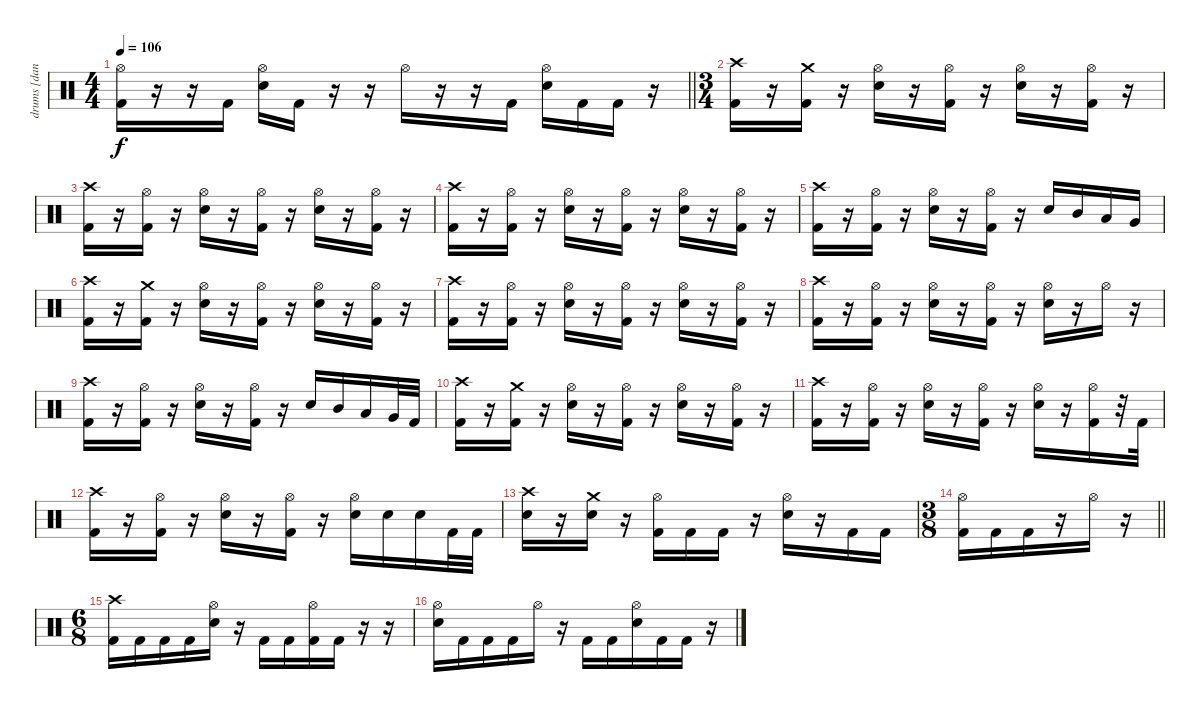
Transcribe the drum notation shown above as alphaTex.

\track ("drums [danny carey]" "drums [dan") {instrument percussion}
\staff {score}
\articulation defaults
\ts (4 4)
\tempo 106
\clef neutral
\barLineRight lightlight
\ks c
("Hi-Hat (open)" "Kick (hit) 2").16{dy f} r.16 r.16 "Kick (hit) 2".16 ("Hi-Hat (open)" "Electric Snare (hit)").16 "Kick (hit) 2".16 r.16 r.16 "Hi-Hat (open)".16 r.16 r.16 "Kick (hit) 2".16 ("Hi-Hat (open)" "Electric Snare (hit)").16 "Kick (hit) 2".16 "Kick (hit) 2".16 r.16 |
\ts (3 4)
("Crash high (hit)" "Kick (hit) 2").16 r.16 ("Crash medium (hit)" "Kick (hit) 2").16 r.16 ("Hi-Hat (open)" "Electric Snare (hit)").16 r.16 ("Hi-Hat (open)" "Kick (hit) 2").16 r.16 ("Hi-Hat (open)" "Electric Snare (hit)").16 r.16 ("Hi-Hat (open)" "Kick (hit) 2").16 r.16 |
("Crash high (hit)" "Kick (hit) 2").16 r.16 ("Hi-Hat (open)" "Kick (hit) 2").16 r.16 ("Hi-Hat (open)" "Electric Snare (hit)").16 r.16 ("Hi-Hat (open)" "Kick (hit) 2").16 r.16 ("Hi-Hat (open)" "Electric Snare (hit)").16 r.16 ("Hi-Hat (open)" "Kick (hit) 2").16 r.16 |
("Crash high (hit)" "Kick (hit) 2").16 r.16 ("Hi-Hat (open)" "Kick (hit) 2").16 r.16 ("Hi-Hat (open)" "Electric Snare (hit)").16 r.16 ("Hi-Hat (open)" "Kick (hit) 2").16 r.16 ("Hi-Hat (open)" "Electric Snare (hit)").16 r.16 ("Hi-Hat (open)" "Kick (hit) 2").16 r.16 |
("Crash high (hit)" "Kick (hit) 2").16 r.16 ("Hi-Hat (open)" "Kick (hit) 2").16 r.16 ("Hi-Hat (open)" "Electric Snare (hit)").16 r.16 ("Hi-Hat (open)" "Kick (hit) 2").16 r.16 "Electric Snare (hit)".16 "Mid Tom (hit)".16 "Low Tom (hit)".16 "Very Low Tom (hit)".16 |
("Crash high (hit)" "Kick (hit) 2").16 r.16 ("Crash medium (hit)" "Kick (hit) 2").16 r.16 ("Hi-Hat (open)" "Electric Snare (hit)").16 r.16 ("Hi-Hat (open)" "Kick (hit) 2").16 r.16 ("Hi-Hat (open)" "Electric Snare (hit)").16 r.16 ("Hi-Hat (open)" "Kick (hit) 2").16 r.16 |
("Crash high (hit)" "Kick (hit) 2").16 r.16 ("Hi-Hat (open)" "Kick (hit) 2").16 r.16 ("Hi-Hat (open)" "Electric Snare (hit)").16 r.16 ("Hi-Hat (open)" "Kick (hit) 2").16 r.16 ("Hi-Hat (open)" "Electric Snare (hit)").16 r.16 ("Hi-Hat (open)" "Kick (hit) 2").16 r.16 |
("Crash high (hit)" "Kick (hit) 2").16 r.16 ("Hi-Hat (open)" "Kick (hit) 2").16 r.16 ("Hi-Hat (open)" "Electric Snare (hit)").16 r.16 ("Hi-Hat (open)" "Kick (hit) 2").16 r.16 ("Hi-Hat (open)" "Electric Snare (hit)").16 r.16 "Hi-Hat (open)".16 r.16 |
("Crash high (hit)" "Kick (hit) 2").16 r.16 ("Hi-Hat (open)" "Kick (hit) 2").16 r.16 ("Hi-Hat (open)" "Electric Snare (hit)").16 r.16 ("Hi-Hat (open)" "Kick (hit) 2").16 r.16 "Electric Snare (hit)".16 "Mid Tom (hit)".16 "Low Tom (hit)".16 "Very Low Tom (hit)".32 "Kick (hit) 2".32 |
("Crash high (hit)" "Kick (hit) 2").16 r.16 ("Crash medium (hit)" "Kick (hit) 2").16 r.16 ("Hi-Hat (open)" "Electric Snare (hit)").16 r.16 ("Hi-Hat (open)" "Kick (hit) 2").16 r.16 ("Hi-Hat (open)" "Electric Snare (hit)").16 r.16 ("Hi-Hat (open)" "Kick (hit) 2").16 r.16 |
("Crash high (hit)" "Kick (hit) 2").16 r.16 ("Hi-Hat (open)" "Kick (hit) 2").16 r.16 ("Hi-Hat (open)" "Electric Snare (hit)").16 r.16 ("Hi-Hat (open)" "Kick (hit) 2").16 r.16 ("Hi-Hat (open)" "Electric Snare (hit)").16 r.16 ("Hi-Hat (open)" "Kick (hit) 2").16 r.32 "Kick (hit) 2".32 |
("Crash high (hit)" "Kick (hit) 2").16 r.16 ("Hi-Hat (open)" "Kick (hit) 2").16 r.16 ("Hi-Hat (open)" "Electric Snare (hit)").16 r.16 ("Hi-Hat (open)" "Kick (hit) 2").16 r.16 ("Hi-Hat (open)" "Electric Snare (hit)").16 "Electric Snare (hit)".16 "Electric Snare (hit)".16 "Kick (hit) 2".32 "Kick (hit) 2".32 |
("Crash high (hit)" "Electric Snare (hit)").16 r.16 ("Crash medium (hit)" "Electric Snare (hit)").16 r.16 ("Hi-Hat (open)" "Kick (hit) 2").16 "Kick (hit) 2".16 "Kick (hit) 2".16 r.16 ("Hi-Hat (open)" "Electric Snare (hit)").16 r.16 "Kick (hit) 2".16 "Kick (hit) 2".16 |
\ts (3 8)
\barLineRight lightlight
("Hi-Hat (open)" "Kick (hit) 2").16 "Kick (hit) 2".16 "Kick (hit) 2".16 r.16 "Hi-Hat (open)".16 r.16 |
\ts (6 8)
("Crash high (hit)" "Kick (hit) 2").16 "Kick (hit) 2".16 "Kick (hit) 2".16 "Kick (hit) 2".16 ("Hi-Hat (open)" "Electric Snare (hit)").16 r.16 "Kick (hit) 2".16 "Kick (hit) 2".16 ("Hi-Hat (open)" "Kick (hit) 2").16 "Kick (hit) 2".16 r.16 r.16 |
("Hi-Hat (open)" "Electric Snare (hit)").16 "Kick (hit) 2".16 "Kick (hit) 2".16 "Kick (hit) 2".16 "Hi-Hat (open)".16 r.16 "Kick (hit) 2".16 "Kick (hit) 2".16 ("Hi-Hat (open)" "Electric Snare (hit)").16 "Kick (hit) 2".16 "Kick (hit) 2".16 r.16
